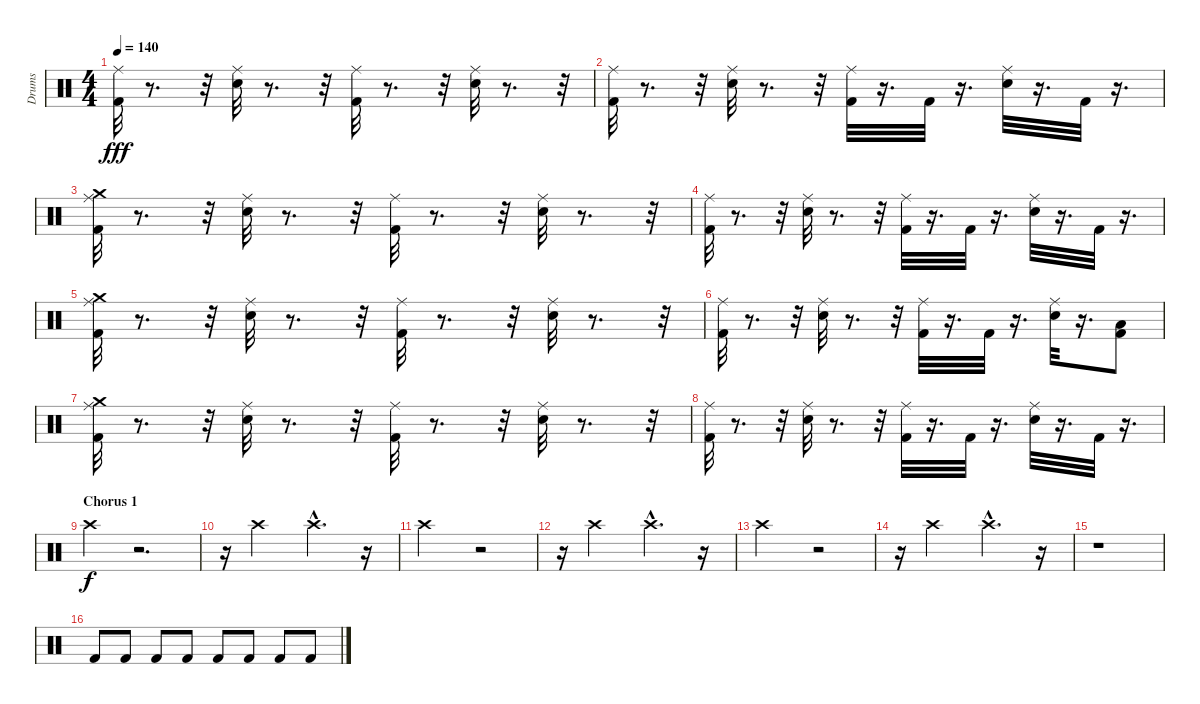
\track ("Drums" "Drums") {instrument percussion}
\staff {score}
\articulation defaults
\ts (4 4)
\tempo 140
\clef neutral
\ks c
("Kick (hit) 2" "Ride (middle)").32{dy fff} r.8{d} r.32 ("Ride (middle)" "Snare (hit) 2").32 r.8{d} r.32 ("Kick (hit) 2" "Ride (middle)").32 r.8{d} r.32 ("Ride (middle)" "Snare (hit) 2").32 r.8{d} r.32 |
("Kick (hit) 2" "Ride (middle)").32 r.8{d} r.32 ("Ride (middle)" "Snare (hit) 2").32 r.8{d} r.32 ("Kick (hit) 2" "Ride (middle)").32 r.16{d} "Kick (hit) 2".32 r.16{d} ("Ride (middle)" "Snare (hit) 2").32 r.16{d} "Kick (hit) 2".32 r.16{d} |
("Crash medium (hit)" "Kick (hit) 2" "Ride (middle)").32 r.8{d} r.32 ("Ride (middle)" "Snare (hit) 2").32 r.8{d} r.32 ("Kick (hit) 2" "Ride (middle)").32 r.8{d} r.32 ("Ride (middle)" "Snare (hit) 2").32 r.8{d} r.32 |
("Kick (hit) 2" "Ride (middle)").32 r.8{d} r.32 ("Ride (middle)" "Snare (hit) 2").32 r.8{d} r.32 ("Kick (hit) 2" "Ride (middle)").32 r.16{d} "Kick (hit) 2".32 r.16{d} ("Ride (middle)" "Snare (hit) 2").32 r.16{d} "Kick (hit) 2".32 r.16{d} |
("Crash medium (hit)" "Kick (hit) 2" "Ride (middle)").32 r.8{d} r.32 ("Ride (middle)" "Snare (hit) 2").32 r.8{d} r.32 ("Kick (hit) 2" "Ride (middle)").32 r.8{d} r.32 ("Ride (middle)" "Snare (hit) 2").32 r.8{d} r.32 |
("Kick (hit) 2" "Ride (middle)").32 r.8{d} r.32 ("Ride (middle)" "Snare (hit) 2").32 r.8{d} r.32 ("Kick (hit) 2" "Ride (middle)").32 r.16{d} "Kick (hit) 2".32 r.16{d} ("Ride (middle)" "Snare (hit) 2").32 r.16{d} ("Low Tom (hit)" "Kick (hit) 2").8 |
("Crash medium (hit)" "Kick (hit) 2" "Ride (middle)").32 r.8{d} r.32 ("Ride (middle)" "Snare (hit) 2").32 r.8{d} r.32 ("Kick (hit) 2" "Ride (middle)").32 r.8{d} r.32 ("Ride (middle)" "Snare (hit) 2").32 r.8{d} r.32 |
("Kick (hit) 2" "Ride (middle)").32 r.8{d} r.32 ("Ride (middle)" "Snare (hit) 2").32 r.8{d} r.32 ("Kick (hit) 2" "Ride (middle)").32 r.16{d} "Kick (hit) 2".32 r.16{d} ("Ride (middle)" "Snare (hit) 2").32 r.16{d} "Kick (hit) 2".32 r.16{d} |
\section ("" "Chorus 1")
"Crash high (hit)".4{dy f} r.2{d} |
r.16 "Crash high (hit)".2 "Crash high (hit)"{hac}.4{d} r.16 |
"Crash high (hit)".2 r.2 |
r.16 "Crash high (hit)".2 "Crash high (hit)"{hac}.4{d} r.16 |
"Crash high (hit)".2 r.2 |
r.16 "Crash high (hit)".2 "Crash high (hit)"{hac}.4{d} r.16 |
r.1 |
"Kick (hit) 2".8{volume 0} "Kick (hit) 2".8{volume 1} "Kick (hit) 2".8{volume 2} "Kick (hit) 2".8{volume 3} "Kick (hit) 2".8{volume 4} "Kick (hit) 2".8{volume 5} "Kick (hit) 2".8{volume 6} "Kick (hit) 2".8{volume 11}
